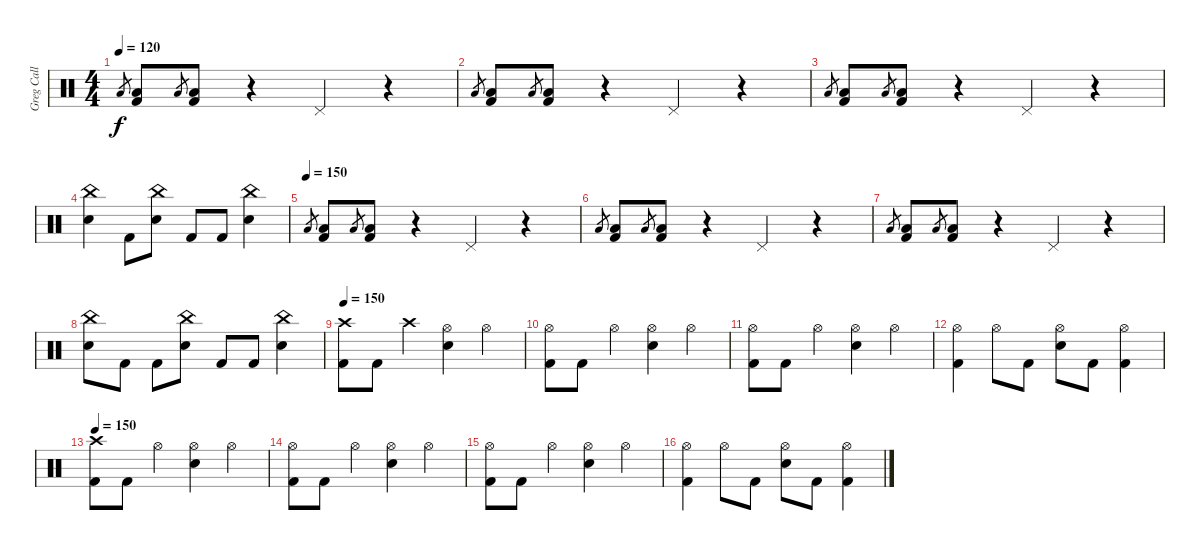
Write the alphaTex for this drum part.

\track ("Greg Call" "Greg Call") {instrument percussion}
\staff {score}
\articulation defaults
\ts (4 4)
\tempo 120
\tempo 150
\tempo 120
\clef neutral
\ks c "Low Floor Tom (hit)".8{gr dy f}
("Low Floor Tom (hit)" "Kick (hit) 2").8{volume 16} "Low Floor Tom (hit)".8{gr} ("Low Floor Tom (hit)" "Kick (hit) 2").8 r.4 "Pedal Hi-Hat (hit)".4 r.4 |
"Low Floor Tom (hit)".8{gr} ("Low Floor Tom (hit)" "Kick (hit) 2").8{volume 16} "Low Floor Tom (hit)".8{gr} ("Low Floor Tom (hit)" "Kick (hit) 2").8 r.4 "Pedal Hi-Hat (hit)".4 r.4 |
"Low Floor Tom (hit)".8{gr} ("Low Floor Tom (hit)" "Kick (hit) 2").8{volume 16} "Low Floor Tom (hit)".8{gr} ("Low Floor Tom (hit)" "Kick (hit) 2").8 r.4 "Pedal Hi-Hat (hit)".4 r.4 |
("China (hit)" "Snare (hit) 2").4 "Kick (hit) 2".8 ("China (hit)" "Snare (hit) 2").8 "Kick (hit) 2".8 "Kick (hit) 2".8 ("China (hit)" "Snare (hit) 2").4 |
\tempo (150)
"Low Floor Tom (hit)".8{gr} ("Low Floor Tom (hit)" "Kick (hit) 2").8{volume 16} "Low Floor Tom (hit)".8{gr} ("Low Floor Tom (hit)" "Kick (hit) 2").8 r.4 "Pedal Hi-Hat (hit)".4 r.4 |
"Low Floor Tom (hit)".8{gr} ("Low Floor Tom (hit)" "Kick (hit) 2").8{volume 16} "Low Floor Tom (hit)".8{gr} ("Low Floor Tom (hit)" "Kick (hit) 2").8 r.4 "Pedal Hi-Hat (hit)".4 r.4 |
"Low Floor Tom (hit)".8{gr} ("Low Floor Tom (hit)" "Kick (hit) 2").8{volume 16} "Low Floor Tom (hit)".8{gr} ("Low Floor Tom (hit)" "Kick (hit) 2").8 r.4 "Pedal Hi-Hat (hit)".4 r.4 |
("China (hit)" "Snare (hit) 2").8 "Kick (hit) 2".8 "Kick (hit) 2".8 ("China (hit)" "Snare (hit) 2").8 "Kick (hit) 2".8 "Kick (hit) 2".8 ("China (hit)" "Snare (hit) 2").4 |
\tempo 150
("Crash high (hit)" "Kick (hit) 2").8 "Kick (hit) 2".8 "Crash high (hit)".4 ("Hi-Hat (open)" "Snare (hit) 2").4 "Hi-Hat (open)".4 |
("Hi-Hat (open)" "Kick (hit) 2").8 "Kick (hit) 2".8 "Hi-Hat (open)".4 ("Hi-Hat (open)" "Snare (hit) 2").4 "Hi-Hat (open)".4 |
("Hi-Hat (open)" "Kick (hit) 2").8 "Kick (hit) 2".8 "Hi-Hat (open)".4 ("Hi-Hat (open)" "Snare (hit) 2").4 "Hi-Hat (open)".4 |
("Hi-Hat (open)" "Kick (hit) 2").4 "Hi-Hat (open)".8 "Kick (hit) 2".8 ("Hi-Hat (open)" "Snare (hit) 2").8 "Kick (hit) 2".8 ("Hi-Hat (open)" "Kick (hit) 2").4 |
\tempo 150
("Crash high (hit)" "Kick (hit) 2").8 "Kick (hit) 2".8 "Hi-Hat (open)".4 ("Hi-Hat (open)" "Snare (hit) 2").4 "Hi-Hat (open)".4 |
("Hi-Hat (open)" "Kick (hit) 2").8 "Kick (hit) 2".8 "Hi-Hat (open)".4 ("Hi-Hat (open)" "Snare (hit) 2").4 "Hi-Hat (open)".4 |
("Hi-Hat (open)" "Kick (hit) 2").8 "Kick (hit) 2".8 "Hi-Hat (open)".4 ("Hi-Hat (open)" "Snare (hit) 2").4 "Hi-Hat (open)".4 |
("Hi-Hat (open)" "Kick (hit) 2").4 "Hi-Hat (open)".8 "Kick (hit) 2".8 ("Hi-Hat (open)" "Snare (hit) 2").8 "Kick (hit) 2".8 ("Hi-Hat (open)" "Kick (hit) 2").4
